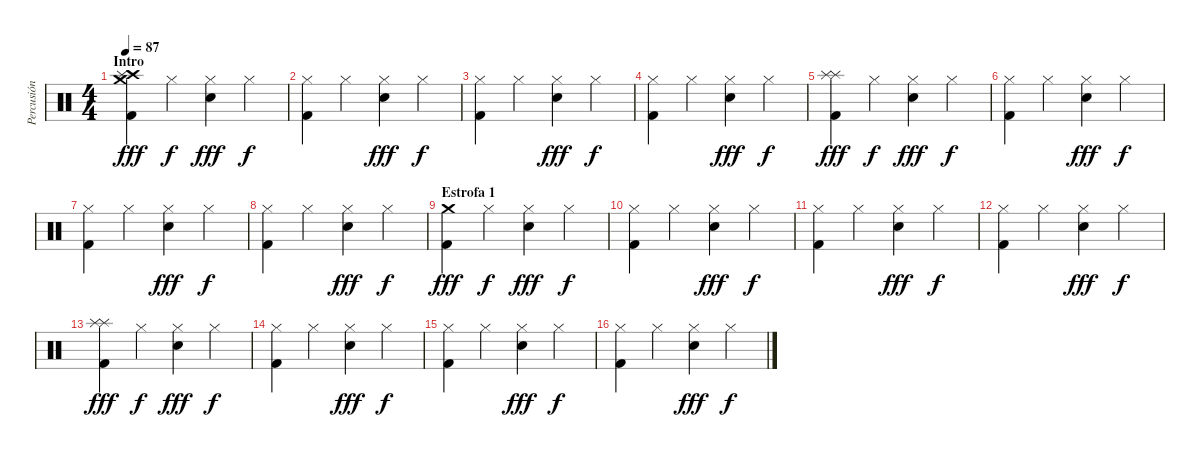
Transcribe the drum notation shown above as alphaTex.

\track ("Percusión" "Percusión") {instrument percussion}
\staff {score}
\articulation defaults
\ts (4 4)
\section ("" "Intro")
\tempo 87
\clef neutral
\ks c
("Crash medium (hit)" "Crash high (hit)" "Splash (hit)" "Kick (hit) 2").4{dy fff} "Hi-Hat (closed)".4{dy f} ("Hi-Hat (closed)" "Snare (hit) 2").4{dy fff} "Hi-Hat (closed)".4{dy f} |
("Hi-Hat (closed)" "Kick (hit) 2").4 "Hi-Hat (closed)".4 ("Hi-Hat (closed)" "Snare (hit) 2").4{dy fff} "Hi-Hat (closed)".4{dy f} |
("Hi-Hat (closed)" "Kick (hit) 2").4 "Hi-Hat (closed)".4 ("Hi-Hat (closed)" "Snare (hit) 2").4{dy fff} "Hi-Hat (closed)".4{dy f} |
("Hi-Hat (closed)" "Kick (hit) 2").4 "Hi-Hat (closed)".4 ("Hi-Hat (closed)" "Snare (hit) 2").4{dy fff} "Hi-Hat (closed)".4{dy f} |
("Splash (hit)" "Splash (hit)" "Kick (hit) 2").4{dy fff} "Hi-Hat (closed)".4{dy f} ("Hi-Hat (closed)" "Snare (hit) 2").4{dy fff} "Hi-Hat (closed)".4{dy f} |
("Hi-Hat (closed)" "Kick (hit) 2").4 "Hi-Hat (closed)".4 ("Hi-Hat (closed)" "Snare (hit) 2").4{dy fff} "Hi-Hat (closed)".4{dy f} |
("Hi-Hat (closed)" "Kick (hit) 2").4 "Hi-Hat (closed)".4 ("Hi-Hat (closed)" "Snare (hit) 2").4{dy fff} "Hi-Hat (closed)".4{dy f} |
("Hi-Hat (closed)" "Kick (hit) 2").4 "Hi-Hat (closed)".4 ("Hi-Hat (closed)" "Snare (hit) 2").4{dy fff} "Hi-Hat (closed)".4{dy f} |
\section ("" "Estrofa 1")
("Crash medium (hit)" "Kick (hit) 2").4{dy fff} "Hi-Hat (closed)".4{dy f} ("Hi-Hat (closed)" "Snare (hit) 2").4{dy fff} "Hi-Hat (closed)".4{dy f} |
("Hi-Hat (closed)" "Kick (hit) 2").4 "Hi-Hat (closed)".4 ("Hi-Hat (closed)" "Snare (hit) 2").4{dy fff} "Hi-Hat (closed)".4{dy f} |
("Hi-Hat (closed)" "Kick (hit) 2").4 "Hi-Hat (closed)".4 ("Hi-Hat (closed)" "Snare (hit) 2").4{dy fff} "Hi-Hat (closed)".4{dy f} |
("Hi-Hat (closed)" "Kick (hit) 2").4 "Hi-Hat (closed)".4 ("Hi-Hat (closed)" "Snare (hit) 2").4{dy fff} "Hi-Hat (closed)".4{dy f} |
("Splash (hit)" "Splash (hit)" "Kick (hit) 2").4{dy fff} "Hi-Hat (closed)".4{dy f} ("Hi-Hat (closed)" "Snare (hit) 2").4{dy fff} "Hi-Hat (closed)".4{dy f} |
("Hi-Hat (closed)" "Kick (hit) 2").4 "Hi-Hat (closed)".4 ("Hi-Hat (closed)" "Snare (hit) 2").4{dy fff} "Hi-Hat (closed)".4{dy f} |
("Hi-Hat (closed)" "Kick (hit) 2").4 "Hi-Hat (closed)".4 ("Hi-Hat (closed)" "Snare (hit) 2").4{dy fff} "Hi-Hat (closed)".4{dy f} |
("Hi-Hat (closed)" "Kick (hit) 2").4 "Hi-Hat (closed)".4 ("Hi-Hat (closed)" "Snare (hit) 2").4{dy fff} "Hi-Hat (closed)".4{dy f}
